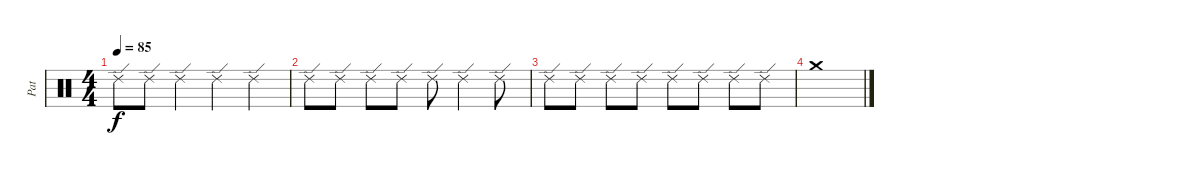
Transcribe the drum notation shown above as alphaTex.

\track ("Pat" "Pat") {instrument percussion}
\staff {score}
\articulation defaults
\ts (4 4)
\tempo 85
\clef neutral
\ks c "Ride (edge) 2".8{dy f} "Ride (edge) 2".8 "Ride (edge) 2".4 "Ride (edge) 2".4 "Ride (edge) 2".4
|
"Ride (edge) 2".8 "Ride (edge) 2".8 "Ride (edge) 2".8 "Ride (edge) 2".8 "Ride (edge) 2".8 "Ride (edge) 2".4 "Ride (edge) 2".8 |
"Ride (edge) 2".8 "Ride (edge) 2".8 "Ride (edge) 2".8 "Ride (edge) 2".8 "Ride (edge) 2".8 "Ride (edge) 2".8 "Ride (edge) 2".8 "Ride (edge) 2".8 |
"Crash medium (hit)".1
